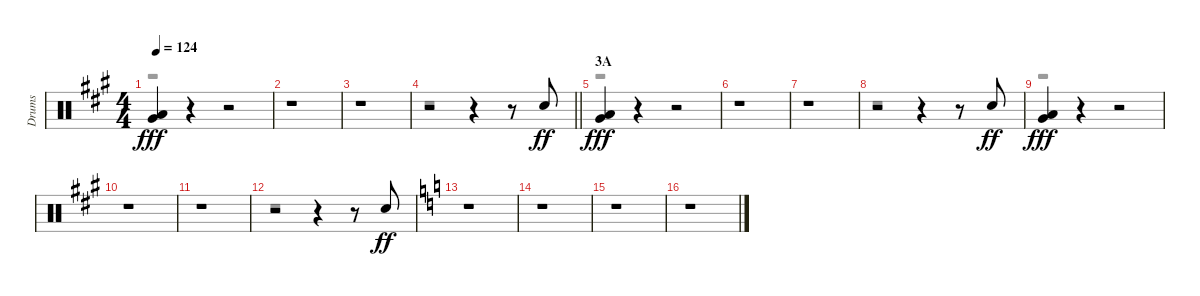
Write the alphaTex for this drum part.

\track ("Drums" "Drums") {solo instrument percussion}
\staff {score}
\articulation defaults
\voice
\ts (4 4)
\tempo 124
\clef neutral
\ks a
("Low Tom (hit)" "Very Low Tom (hit)").4{dy fff} r.4 r.2 |
r.1 |
r.1 |
\barLineRight lightlight
r.2 r.4 r.8 "Electric Snare (hit)".8{dy ff} |
\section ("" "3A")
("Low Tom (hit)" "Very Low Tom (hit)").4{dy fff} r.4 r.2 |
r.1 |
r.1 |
r.2 r.4 r.8 "Electric Snare (hit)".8{dy ff} |
("Low Tom (hit)" "Very Low Tom (hit)").4{dy fff} r.4 r.2 |
r.1 |
r.1 |
r.2 r.4 r.8 "Electric Snare (hit)".8{dy ff} |
\ks c
r.1 |
r.1 |
r.1 |
r.1
\voice
\clef neutral
\ottava regular
\simile none
\ks a
r.1{dy f} |
|
|
\barLineRight lightlight
r.1 |
r.1 |
|
|
r.1 |
r.1 |
|
|
r.1 |
\ks c
|
|
|
